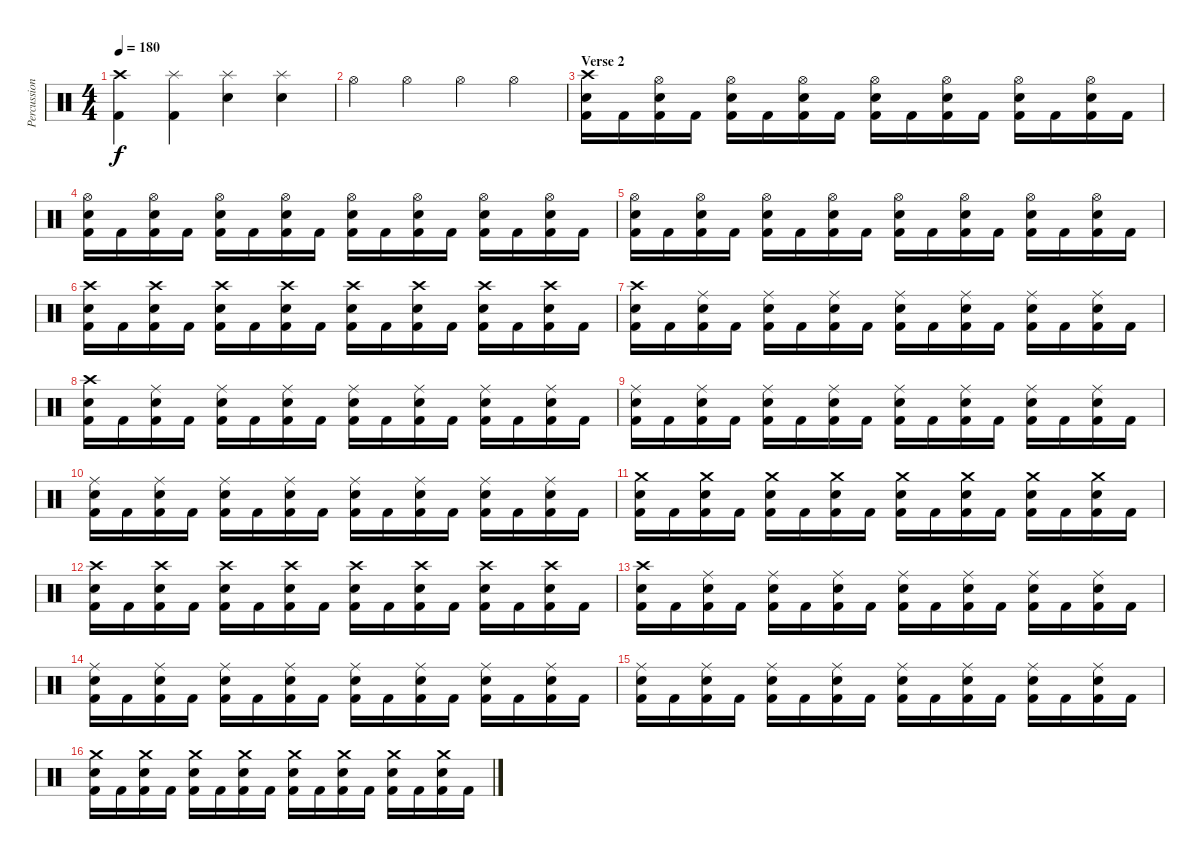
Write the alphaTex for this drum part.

\track ("Percussion" "Percussion") {instrument percussion}
\staff {score}
\articulation defaults
\ts (4 4)
\tempo 180
\clef neutral
\ks c
("Crash high (hit)" "Kick (hit) 2").4{dy f} ("Splash (hit)" "Kick (hit) 2").4 ("Splash (hit)" "Snare (hit) 2").4 ("Splash (hit)" "Snare (hit) 2").4 |
"Hi-Hat (open)".4 "Hi-Hat (open)".4 "Hi-Hat (open)".4 "Hi-Hat (open)".4 |
\section ("" "Verse 2")
("Crash high (hit)" "Snare (hit) 2" "Kick (hit) 2").16 "Kick (hit) 2".16 ("Hi-Hat (open)" "Snare (hit) 2" "Kick (hit) 2").16 "Kick (hit) 2".16 ("Hi-Hat (open)" "Snare (hit) 2" "Kick (hit) 2").16 "Kick (hit) 2".16 ("Hi-Hat (open)" "Snare (hit) 2" "Kick (hit) 2").16 "Kick (hit) 2".16 ("Hi-Hat (open)" "Snare (hit) 2" "Kick (hit) 2").16 "Kick (hit) 2".16 ("Hi-Hat (open)" "Snare (hit) 2" "Kick (hit) 2").16 "Kick (hit) 2".16 ("Hi-Hat (open)" "Snare (hit) 2" "Kick (hit) 2").16 "Kick (hit) 2".16 ("Hi-Hat (open)" "Snare (hit) 2" "Kick (hit) 2").16 "Kick (hit) 2".16 |
("Hi-Hat (open)" "Snare (hit) 2" "Kick (hit) 2").16 "Kick (hit) 2".16 ("Hi-Hat (open)" "Snare (hit) 2" "Kick (hit) 2").16 "Kick (hit) 2".16 ("Hi-Hat (open)" "Snare (hit) 2" "Kick (hit) 2").16 "Kick (hit) 2".16 ("Hi-Hat (open)" "Snare (hit) 2" "Kick (hit) 2").16 "Kick (hit) 2".16 ("Hi-Hat (open)" "Snare (hit) 2" "Kick (hit) 2").16 "Kick (hit) 2".16 ("Hi-Hat (open)" "Snare (hit) 2" "Kick (hit) 2").16 "Kick (hit) 2".16 ("Hi-Hat (open)" "Snare (hit) 2" "Kick (hit) 2").16 "Kick (hit) 2".16 ("Hi-Hat (open)" "Snare (hit) 2" "Kick (hit) 2").16 "Kick (hit) 2".16 |
("Hi-Hat (open)" "Snare (hit) 2" "Kick (hit) 2").16 "Kick (hit) 2".16 ("Hi-Hat (open)" "Snare (hit) 2" "Kick (hit) 2").16 "Kick (hit) 2".16 ("Hi-Hat (open)" "Snare (hit) 2" "Kick (hit) 2").16 "Kick (hit) 2".16 ("Hi-Hat (open)" "Snare (hit) 2" "Kick (hit) 2").16 "Kick (hit) 2".16 ("Hi-Hat (open)" "Snare (hit) 2" "Kick (hit) 2").16 "Kick (hit) 2".16 ("Hi-Hat (open)" "Snare (hit) 2" "Kick (hit) 2").16 "Kick (hit) 2".16 ("Hi-Hat (open)" "Snare (hit) 2" "Kick (hit) 2").16 "Kick (hit) 2".16 ("Hi-Hat (open)" "Snare (hit) 2" "Kick (hit) 2").16 "Kick (hit) 2".16 |
("Crash high (hit)" "Snare (hit) 2" "Kick (hit) 2").16 "Kick (hit) 2".16 ("Crash high (hit)" "Snare (hit) 2" "Kick (hit) 2").16 "Kick (hit) 2".16 ("Crash high (hit)" "Snare (hit) 2" "Kick (hit) 2").16 "Kick (hit) 2".16 ("Crash high (hit)" "Snare (hit) 2" "Kick (hit) 2").16 "Kick (hit) 2".16 ("Crash high (hit)" "Snare (hit) 2" "Kick (hit) 2").16 "Kick (hit) 2".16 ("Crash high (hit)" "Snare (hit) 2" "Kick (hit) 2").16 "Kick (hit) 2".16 ("Crash high (hit)" "Snare (hit) 2" "Kick (hit) 2").16 "Kick (hit) 2".16 ("Crash high (hit)" "Snare (hit) 2" "Kick (hit) 2").16 "Kick (hit) 2".16 |
("Crash high (hit)" "Snare (hit) 2" "Kick (hit) 2").16 "Kick (hit) 2".16 ("Ride (middle)" "Snare (hit) 2" "Kick (hit) 2").16 "Kick (hit) 2".16 ("Ride (middle)" "Snare (hit) 2" "Kick (hit) 2").16 "Kick (hit) 2".16 ("Ride (middle)" "Snare (hit) 2" "Kick (hit) 2").16 "Kick (hit) 2".16 ("Ride (middle)" "Snare (hit) 2" "Kick (hit) 2").16 "Kick (hit) 2".16 ("Ride (middle)" "Snare (hit) 2" "Kick (hit) 2").16 "Kick (hit) 2".16 ("Ride (middle)" "Snare (hit) 2" "Kick (hit) 2").16 "Kick (hit) 2".16 ("Ride (middle)" "Snare (hit) 2" "Kick (hit) 2").16 "Kick (hit) 2".16 |
("Crash high (hit)" "Snare (hit) 2" "Kick (hit) 2").16 "Kick (hit) 2".16 ("Ride (middle)" "Snare (hit) 2" "Kick (hit) 2").16 "Kick (hit) 2".16 ("Ride (middle)" "Snare (hit) 2" "Kick (hit) 2").16 "Kick (hit) 2".16 ("Ride (middle)" "Snare (hit) 2" "Kick (hit) 2").16 "Kick (hit) 2".16 ("Ride (middle)" "Snare (hit) 2" "Kick (hit) 2").16 "Kick (hit) 2".16 ("Ride (middle)" "Snare (hit) 2" "Kick (hit) 2").16 "Kick (hit) 2".16 ("Ride (middle)" "Snare (hit) 2" "Kick (hit) 2").16 "Kick (hit) 2".16 ("Ride (middle)" "Snare (hit) 2" "Kick (hit) 2").16 "Kick (hit) 2".16 |
("Ride (middle)" "Snare (hit) 2" "Kick (hit) 2").16 "Kick (hit) 2".16 ("Ride (middle)" "Snare (hit) 2" "Kick (hit) 2").16 "Kick (hit) 2".16 ("Ride (middle)" "Snare (hit) 2" "Kick (hit) 2").16 "Kick (hit) 2".16 ("Ride (middle)" "Snare (hit) 2" "Kick (hit) 2").16 "Kick (hit) 2".16 ("Ride (middle)" "Snare (hit) 2" "Kick (hit) 2").16 "Kick (hit) 2".16 ("Ride (middle)" "Snare (hit) 2" "Kick (hit) 2").16 "Kick (hit) 2".16 ("Ride (middle)" "Snare (hit) 2" "Kick (hit) 2").16 "Kick (hit) 2".16 ("Ride (middle)" "Snare (hit) 2" "Kick (hit) 2").16 "Kick (hit) 2".16 |
("Ride (middle)" "Snare (hit) 2" "Kick (hit) 2").16 "Kick (hit) 2".16 ("Ride (middle)" "Snare (hit) 2" "Kick (hit) 2").16 "Kick (hit) 2".16 ("Ride (middle)" "Snare (hit) 2" "Kick (hit) 2").16 "Kick (hit) 2".16 ("Ride (middle)" "Snare (hit) 2" "Kick (hit) 2").16 "Kick (hit) 2".16 ("Ride (middle)" "Snare (hit) 2" "Kick (hit) 2").16 "Kick (hit) 2".16 ("Ride (middle)" "Snare (hit) 2" "Kick (hit) 2").16 "Kick (hit) 2".16 ("Ride (middle)" "Snare (hit) 2" "Kick (hit) 2").16 "Kick (hit) 2".16 ("Ride (middle)" "Snare (hit) 2" "Kick (hit) 2").16 "Kick (hit) 2".16 |
("Crash medium (hit)" "Snare (hit) 2" "Kick (hit) 2").16 "Kick (hit) 2".16 ("Crash medium (hit)" "Snare (hit) 2" "Kick (hit) 2").16 "Kick (hit) 2".16 ("Crash medium (hit)" "Snare (hit) 2" "Kick (hit) 2").16 "Kick (hit) 2".16 ("Crash medium (hit)" "Snare (hit) 2" "Kick (hit) 2").16 "Kick (hit) 2".16 ("Crash medium (hit)" "Snare (hit) 2" "Kick (hit) 2").16 "Kick (hit) 2".16 ("Crash medium (hit)" "Snare (hit) 2" "Kick (hit) 2").16 "Kick (hit) 2".16 ("Crash medium (hit)" "Snare (hit) 2" "Kick (hit) 2").16 "Kick (hit) 2".16 ("Crash medium (hit)" "Snare (hit) 2" "Kick (hit) 2").16 "Kick (hit) 2".16 |
("Crash high (hit)" "Snare (hit) 2" "Kick (hit) 2").16 "Kick (hit) 2".16 ("Crash high (hit)" "Snare (hit) 2" "Kick (hit) 2").16 "Kick (hit) 2".16 ("Crash high (hit)" "Snare (hit) 2" "Kick (hit) 2").16 "Kick (hit) 2".16 ("Crash high (hit)" "Snare (hit) 2" "Kick (hit) 2").16 "Kick (hit) 2".16 ("Crash high (hit)" "Snare (hit) 2" "Kick (hit) 2").16 "Kick (hit) 2".16 ("Crash high (hit)" "Snare (hit) 2" "Kick (hit) 2").16 "Kick (hit) 2".16 ("Crash high (hit)" "Snare (hit) 2" "Kick (hit) 2").16 "Kick (hit) 2".16 ("Crash high (hit)" "Snare (hit) 2" "Kick (hit) 2").16 "Kick (hit) 2".16 |
("Crash high (hit)" "Snare (hit) 2" "Kick (hit) 2").16 "Kick (hit) 2".16 ("Ride (middle)" "Snare (hit) 2" "Kick (hit) 2").16 "Kick (hit) 2".16 ("Ride (middle)" "Snare (hit) 2" "Kick (hit) 2").16 "Kick (hit) 2".16 ("Ride (middle)" "Snare (hit) 2" "Kick (hit) 2").16 "Kick (hit) 2".16 ("Ride (middle)" "Snare (hit) 2" "Kick (hit) 2").16 "Kick (hit) 2".16 ("Ride (middle)" "Snare (hit) 2" "Kick (hit) 2").16 "Kick (hit) 2".16 ("Ride (middle)" "Snare (hit) 2" "Kick (hit) 2").16 "Kick (hit) 2".16 ("Ride (middle)" "Snare (hit) 2" "Kick (hit) 2").16 "Kick (hit) 2".16 |
("Ride (middle)" "Snare (hit) 2" "Kick (hit) 2").16 "Kick (hit) 2".16 ("Ride (middle)" "Snare (hit) 2" "Kick (hit) 2").16 "Kick (hit) 2".16 ("Ride (middle)" "Snare (hit) 2" "Kick (hit) 2").16 "Kick (hit) 2".16 ("Ride (middle)" "Snare (hit) 2" "Kick (hit) 2").16 "Kick (hit) 2".16 ("Ride (middle)" "Snare (hit) 2" "Kick (hit) 2").16 "Kick (hit) 2".16 ("Ride (middle)" "Snare (hit) 2" "Kick (hit) 2").16 "Kick (hit) 2".16 ("Ride (middle)" "Snare (hit) 2" "Kick (hit) 2").16 "Kick (hit) 2".16 ("Ride (middle)" "Snare (hit) 2" "Kick (hit) 2").16 "Kick (hit) 2".16 |
("Ride (middle)" "Snare (hit) 2" "Kick (hit) 2").16 "Kick (hit) 2".16 ("Ride (middle)" "Snare (hit) 2" "Kick (hit) 2").16 "Kick (hit) 2".16 ("Ride (middle)" "Snare (hit) 2" "Kick (hit) 2").16 "Kick (hit) 2".16 ("Ride (middle)" "Snare (hit) 2" "Kick (hit) 2").16 "Kick (hit) 2".16 ("Ride (middle)" "Snare (hit) 2" "Kick (hit) 2").16 "Kick (hit) 2".16 ("Ride (middle)" "Snare (hit) 2" "Kick (hit) 2").16 "Kick (hit) 2".16 ("Ride (middle)" "Snare (hit) 2" "Kick (hit) 2").16 "Kick (hit) 2".16 ("Ride (middle)" "Snare (hit) 2" "Kick (hit) 2").16 "Kick (hit) 2".16 |
("Crash medium (hit)" "Snare (hit) 2" "Kick (hit) 2").16 "Kick (hit) 2".16 ("Crash medium (hit)" "Snare (hit) 2" "Kick (hit) 2").16 "Kick (hit) 2".16 ("Crash medium (hit)" "Snare (hit) 2" "Kick (hit) 2").16 "Kick (hit) 2".16 ("Crash medium (hit)" "Snare (hit) 2" "Kick (hit) 2").16 "Kick (hit) 2".16 ("Crash medium (hit)" "Snare (hit) 2" "Kick (hit) 2").16 "Kick (hit) 2".16 ("Crash medium (hit)" "Snare (hit) 2" "Kick (hit) 2").16 "Kick (hit) 2".16 ("Crash medium (hit)" "Snare (hit) 2" "Kick (hit) 2").16 "Kick (hit) 2".16 ("Crash medium (hit)" "Snare (hit) 2" "Kick (hit) 2").16 "Kick (hit) 2".16
